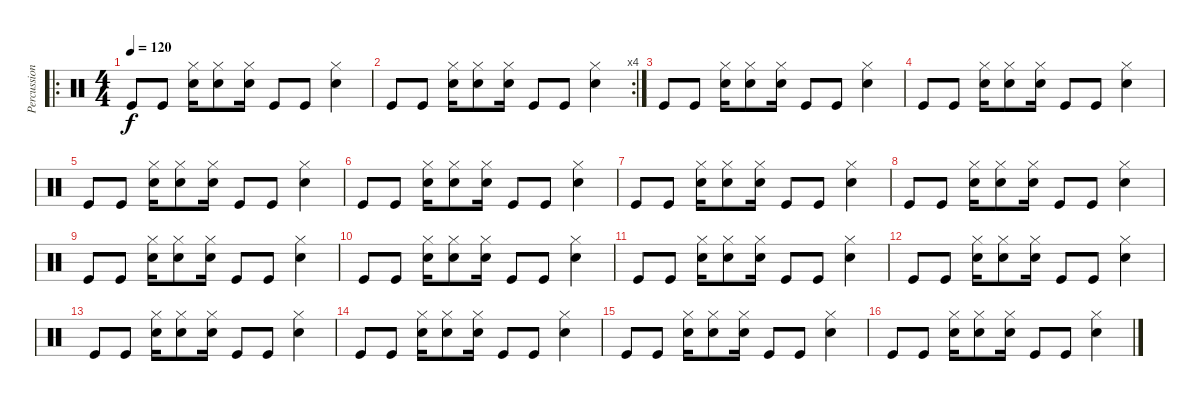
\track ("Percussions" "Percussion") {instrument percussion}
\staff {score}
\articulation defaults
\ro
\ts (4 4)
\tempo 120
\clef neutral
\ks c "Kick (hit)".8{dy f} "Kick (hit)".8
("Electric Snare (hit)" "Hi-Hat (closed)").16 ("Electric Snare (hit)" "Hi-Hat (closed)").8 ("Electric Snare (hit)" "Hi-Hat (closed)").16 "Kick (hit)".8 "Kick (hit)".8 ("Electric Snare (hit)" "Hi-Hat (closed)").4 |
\rc 4 "Kick (hit)".8 "Kick (hit)".8
("Electric Snare (hit)" "Hi-Hat (closed)").16 ("Electric Snare (hit)" "Hi-Hat (closed)").8 ("Electric Snare (hit)" "Hi-Hat (closed)").16 "Kick (hit)".8 "Kick (hit)".8 ("Electric Snare (hit)" "Hi-Hat (closed)").4 |
"Kick (hit)".8 "Kick (hit)".8 ("Electric Snare (hit)" "Hi-Hat (closed)").16 ("Electric Snare (hit)" "Hi-Hat (closed)").8 ("Electric Snare (hit)" "Hi-Hat (closed)").16 "Kick (hit)".8 "Kick (hit)".8 ("Electric Snare (hit)" "Hi-Hat (closed)").4 |
"Kick (hit)".8 "Kick (hit)".8 ("Electric Snare (hit)" "Hi-Hat (closed)").16 ("Electric Snare (hit)" "Hi-Hat (closed)").8 ("Electric Snare (hit)" "Hi-Hat (closed)").16 "Kick (hit)".8 "Kick (hit)".8 ("Electric Snare (hit)" "Hi-Hat (closed)").4 |
"Kick (hit)".8 "Kick (hit)".8 ("Electric Snare (hit)" "Hi-Hat (closed)").16 ("Electric Snare (hit)" "Hi-Hat (closed)").8 ("Electric Snare (hit)" "Hi-Hat (closed)").16 "Kick (hit)".8 "Kick (hit)".8 ("Electric Snare (hit)" "Hi-Hat (closed)").4 |
"Kick (hit)".8 "Kick (hit)".8 ("Electric Snare (hit)" "Hi-Hat (closed)").16 ("Electric Snare (hit)" "Hi-Hat (closed)").8 ("Electric Snare (hit)" "Hi-Hat (closed)").16 "Kick (hit)".8 "Kick (hit)".8 ("Electric Snare (hit)" "Hi-Hat (closed)").4 |
"Kick (hit)".8 "Kick (hit)".8 ("Electric Snare (hit)" "Hi-Hat (closed)").16 ("Electric Snare (hit)" "Hi-Hat (closed)").8 ("Electric Snare (hit)" "Hi-Hat (closed)").16 "Kick (hit)".8 "Kick (hit)".8 ("Electric Snare (hit)" "Hi-Hat (closed)").4 |
"Kick (hit)".8 "Kick (hit)".8 ("Electric Snare (hit)" "Hi-Hat (closed)").16 ("Electric Snare (hit)" "Hi-Hat (closed)").8 ("Electric Snare (hit)" "Hi-Hat (closed)").16 "Kick (hit)".8 "Kick (hit)".8 ("Electric Snare (hit)" "Hi-Hat (closed)").4 |
"Kick (hit)".8 "Kick (hit)".8 ("Electric Snare (hit)" "Hi-Hat (closed)").16 ("Electric Snare (hit)" "Hi-Hat (closed)").8 ("Electric Snare (hit)" "Hi-Hat (closed)").16 "Kick (hit)".8 "Kick (hit)".8 ("Electric Snare (hit)" "Hi-Hat (closed)").4 |
"Kick (hit)".8 "Kick (hit)".8 ("Electric Snare (hit)" "Hi-Hat (closed)").16 ("Electric Snare (hit)" "Hi-Hat (closed)").8 ("Electric Snare (hit)" "Hi-Hat (closed)").16 "Kick (hit)".8 "Kick (hit)".8 ("Electric Snare (hit)" "Hi-Hat (closed)").4 |
"Kick (hit)".8 "Kick (hit)".8 ("Electric Snare (hit)" "Hi-Hat (closed)").16 ("Electric Snare (hit)" "Hi-Hat (closed)").8 ("Electric Snare (hit)" "Hi-Hat (closed)").16 "Kick (hit)".8 "Kick (hit)".8 ("Electric Snare (hit)" "Hi-Hat (closed)").4 |
"Kick (hit)".8 "Kick (hit)".8 ("Electric Snare (hit)" "Hi-Hat (closed)").16 ("Electric Snare (hit)" "Hi-Hat (closed)").8 ("Electric Snare (hit)" "Hi-Hat (closed)").16 "Kick (hit)".8 "Kick (hit)".8 ("Electric Snare (hit)" "Hi-Hat (closed)").4 |
"Kick (hit)".8 "Kick (hit)".8 ("Electric Snare (hit)" "Hi-Hat (closed)").16 ("Electric Snare (hit)" "Hi-Hat (closed)").8 ("Electric Snare (hit)" "Hi-Hat (closed)").16 "Kick (hit)".8 "Kick (hit)".8 ("Electric Snare (hit)" "Hi-Hat (closed)").4 |
"Kick (hit)".8 "Kick (hit)".8 ("Electric Snare (hit)" "Hi-Hat (closed)").16 ("Electric Snare (hit)" "Hi-Hat (closed)").8 ("Electric Snare (hit)" "Hi-Hat (closed)").16 "Kick (hit)".8 "Kick (hit)".8 ("Electric Snare (hit)" "Hi-Hat (closed)").4 |
"Kick (hit)".8 "Kick (hit)".8 ("Electric Snare (hit)" "Hi-Hat (closed)").16 ("Electric Snare (hit)" "Hi-Hat (closed)").8 ("Electric Snare (hit)" "Hi-Hat (closed)").16 "Kick (hit)".8 "Kick (hit)".8 ("Electric Snare (hit)" "Hi-Hat (closed)").4 |
"Kick (hit)".8 "Kick (hit)".8 ("Electric Snare (hit)" "Hi-Hat (closed)").16 ("Electric Snare (hit)" "Hi-Hat (closed)").8 ("Electric Snare (hit)" "Hi-Hat (closed)").16 "Kick (hit)".8 "Kick (hit)".8 ("Electric Snare (hit)" "Hi-Hat (closed)").4
